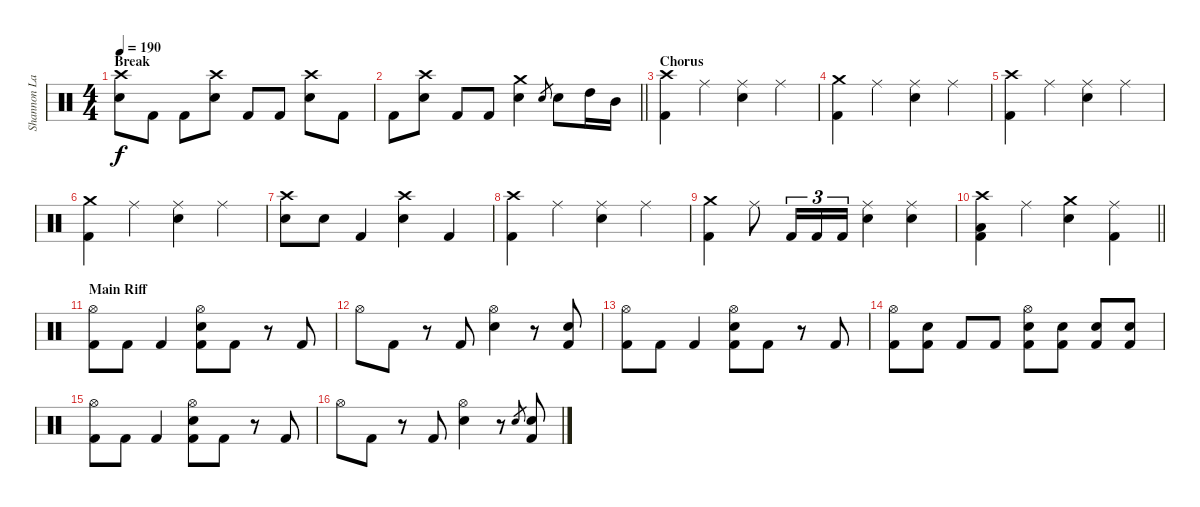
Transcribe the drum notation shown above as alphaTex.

\track ("Shannon Larkin" "Shannon La") {instrument percussion}
\staff {score}
\articulation defaults
\ts (4 4)
\section ("" "Break")
\tempo 190
\clef neutral
\ks c
("Crash high (hit)" "Snare (hit) 2").8{dy f} "Kick (hit) 2".8 "Kick (hit) 2".8 ("Crash high (hit)" "Snare (hit) 2").8 "Kick (hit) 2".8 "Kick (hit) 2".8 ("Crash high (hit)" "Snare (hit) 2").8 "Kick (hit) 2".8 |
\barLineRight lightlight "Kick (hit) 2".8
("Crash high (hit)" "Snare (hit) 2").8 "Kick (hit) 2".8 "Kick (hit) 2".8 ("Crash medium (hit)" "Snare (hit) 2").4 "Snare (hit) 2".8{gr} "Snare (hit) 2".8 "High Tom (hit)".16 "Mid Tom (hit)".16 |
\section ("" "Chorus")
("Crash high (hit)" "Kick (hit) 2").4 "Ride (middle)".4 ("Ride (middle)" "Snare (hit) 2").4 "Ride (middle)".4 |
("Crash medium (hit)" "Kick (hit) 2").4 "Ride (middle)".4 ("Ride (middle)" "Snare (hit) 2").4 "Ride (middle)".4 |
("Crash high (hit)" "Kick (hit) 2").4 "Ride (middle)".4 ("Ride (middle)" "Snare (hit) 2").4 "Ride (middle)".4 |
("Crash medium (hit)" "Kick (hit) 2").4 "Ride (middle)".4 ("Ride (middle)" "Snare (hit) 2").4 "Ride (middle)".4 |
("Crash high (hit)" "Snare (hit) 2").8 "Snare (hit) 2".8 "Kick (hit) 2".4 ("Crash high (hit)" "Snare (hit) 2").4 "Kick (hit) 2".4 |
("Crash high (hit)" "Kick (hit) 2").4 "Ride (middle)".4 ("Ride (middle)" "Snare (hit) 2").4 "Ride (middle)".4 |
("Crash medium (hit)" "Kick (hit) 2").4 "Ride (middle)".8 "Kick (hit) 2".16{tu (3 2)} "Kick (hit) 2".16{tu (3 2)} "Kick (hit) 2".16{tu (3 2)} ("Ride (middle)" "Snare (hit) 2").4 ("Ride (middle)" "Snare (hit) 2").4 |
\barLineRight lightlight
("Crash high (hit)" "Low Tom (hit)" "Kick (hit) 2").4 "Ride (middle)".4 ("Crash medium (hit)" "Snare (hit) 2").4 ("Ride (middle)" "Kick (hit) 2").4 |
\section ("" "Main Riff")
("Hi-Hat (open)" "Kick (hit) 2").8 "Kick (hit) 2".8 "Kick (hit) 2".4 ("Hi-Hat (open)" "Snare (hit) 2" "Kick (hit) 2").8 "Kick (hit) 2".8 r.8 "Kick (hit) 2".8 |
"Hi-Hat (open)".8 "Kick (hit) 2".8 r.8 "Kick (hit) 2".8 ("Hi-Hat (open)" "Snare (hit) 2").4 r.8 ("Snare (hit) 2" "Kick (hit) 2").8 |
("Hi-Hat (open)" "Kick (hit) 2").8 "Kick (hit) 2".8 "Kick (hit) 2".4 ("Hi-Hat (open)" "Snare (hit) 2" "Kick (hit) 2").8 "Kick (hit) 2".8 r.8 "Kick (hit) 2".8 |
("Hi-Hat (open)" "Kick (hit) 2").8 ("Snare (hit) 2" "Kick (hit) 2").8 "Kick (hit) 2".8 "Kick (hit) 2".8 ("Hi-Hat (open)" "Snare (hit) 2" "Kick (hit) 2").8 ("Snare (hit) 2" "Kick (hit) 2").8 ("Snare (hit) 2" "Kick (hit) 2").8 ("Snare (hit) 2" "Kick (hit) 2").8 |
("Hi-Hat (open)" "Kick (hit) 2").8 "Kick (hit) 2".8 "Kick (hit) 2".4 ("Hi-Hat (open)" "Snare (hit) 2" "Kick (hit) 2").8 "Kick (hit) 2".8 r.8 "Kick (hit) 2".8 |
"Hi-Hat (open)".8 "Kick (hit) 2".8 r.8 "Kick (hit) 2".8 ("Hi-Hat (open)" "Snare (hit) 2").4 r.8 "Snare (hit) 2".8{gr} ("Snare (hit) 2" "Kick (hit) 2").8
